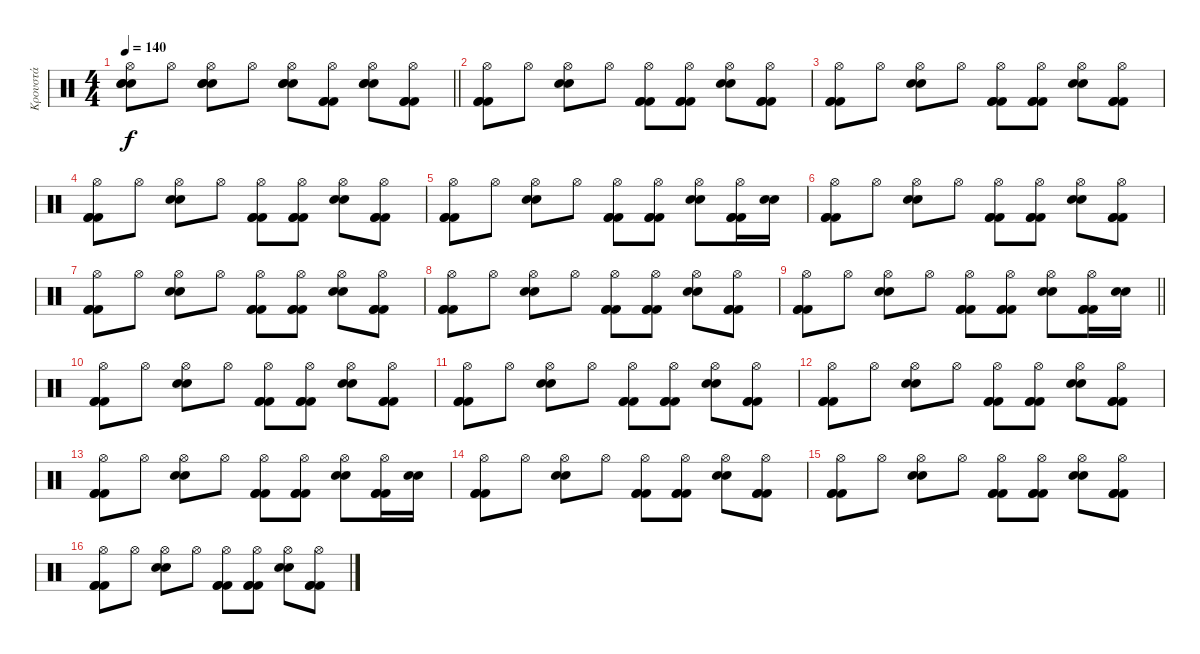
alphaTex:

\track ("Κρουστά" "Κρουστά") {instrument percussion}
\staff {score}
\articulation defaults
\ts (4 4)
\tempo 140
\clef neutral
\barLineRight lightlight
\ks c
("Electric Snare (hit)" "Electric Snare (hit)" "Electric Snare (hit)" "Hi-Hat (open)").8{dy f} "Hi-Hat (open)".8 ("Electric Snare (hit)" "Electric Snare (hit)" "Electric Snare (hit)" "Hi-Hat (open)").8 "Hi-Hat (open)".8 ("Electric Snare (hit)" "Electric Snare (hit)" "Electric Snare (hit)" "Hi-Hat (open)").8 ("Kick (hit) 2" "Kick (hit) 2" "Kick (hit) 2" "Hi-Hat (open)").8 ("Electric Snare (hit)" "Electric Snare (hit)" "Electric Snare (hit)" "Hi-Hat (open)").8 ("Kick (hit) 2" "Kick (hit) 2" "Kick (hit) 2" "Hi-Hat (open)").8 |
("Kick (hit) 2" "Hi-Hat (open)" "Kick (hit) 2" "Kick (hit) 2").8 "Hi-Hat (open)".8 ("Electric Snare (hit)" "Hi-Hat (open)" "Electric Snare (hit)").8 "Hi-Hat (open)".8 ("Kick (hit) 2" "Kick (hit) 2" "Kick (hit) 2" "Hi-Hat (open)").8 ("Kick (hit) 2" "Kick (hit) 2" "Kick (hit) 2" "Hi-Hat (open)").8 ("Electric Snare (hit)" "Electric Snare (hit)" "Hi-Hat (open)").8 ("Kick (hit) 2" "Kick (hit) 2" "Kick (hit) 2" "Hi-Hat (open)").8 |
("Kick (hit) 2" "Hi-Hat (open)" "Kick (hit) 2" "Kick (hit) 2").8 "Hi-Hat (open)".8 ("Electric Snare (hit)" "Hi-Hat (open)" "Electric Snare (hit)").8 "Hi-Hat (open)".8 ("Kick (hit) 2" "Kick (hit) 2" "Kick (hit) 2" "Hi-Hat (open)").8 ("Kick (hit) 2" "Kick (hit) 2" "Kick (hit) 2" "Hi-Hat (open)").8 ("Electric Snare (hit)" "Electric Snare (hit)" "Hi-Hat (open)").8 ("Kick (hit) 2" "Kick (hit) 2" "Kick (hit) 2" "Hi-Hat (open)").8 |
("Kick (hit) 2" "Hi-Hat (open)" "Kick (hit) 2" "Kick (hit) 2").8 "Hi-Hat (open)".8 ("Electric Snare (hit)" "Hi-Hat (open)" "Electric Snare (hit)").8 "Hi-Hat (open)".8 ("Kick (hit) 2" "Kick (hit) 2" "Kick (hit) 2" "Hi-Hat (open)").8 ("Kick (hit) 2" "Kick (hit) 2" "Kick (hit) 2" "Hi-Hat (open)").8 ("Electric Snare (hit)" "Electric Snare (hit)" "Hi-Hat (open)").8 ("Kick (hit) 2" "Kick (hit) 2" "Kick (hit) 2" "Hi-Hat (open)").8 |
("Kick (hit) 2" "Hi-Hat (open)" "Kick (hit) 2" "Kick (hit) 2").8 "Hi-Hat (open)".8 ("Electric Snare (hit)" "Hi-Hat (open)" "Electric Snare (hit)").8 "Hi-Hat (open)".8 ("Kick (hit) 2" "Kick (hit) 2" "Kick (hit) 2" "Hi-Hat (open)").8 ("Kick (hit) 2" "Kick (hit) 2" "Kick (hit) 2" "Hi-Hat (open)").8 ("Electric Snare (hit)" "Electric Snare (hit)" "Hi-Hat (open)").8 ("Kick (hit) 2" "Kick (hit) 2" "Kick (hit) 2" "Hi-Hat (open)").16 ("Electric Snare (hit)" "Electric Snare (hit)").16 |
("Kick (hit) 2" "Hi-Hat (open)" "Kick (hit) 2" "Kick (hit) 2").8 "Hi-Hat (open)".8 ("Electric Snare (hit)" "Hi-Hat (open)" "Electric Snare (hit)").8 "Hi-Hat (open)".8 ("Kick (hit) 2" "Kick (hit) 2" "Kick (hit) 2" "Hi-Hat (open)").8 ("Kick (hit) 2" "Kick (hit) 2" "Kick (hit) 2" "Hi-Hat (open)").8 ("Electric Snare (hit)" "Electric Snare (hit)" "Hi-Hat (open)").8 ("Kick (hit) 2" "Kick (hit) 2" "Kick (hit) 2" "Hi-Hat (open)").8 |
("Kick (hit) 2" "Hi-Hat (open)" "Kick (hit) 2" "Kick (hit) 2").8 "Hi-Hat (open)".8 ("Electric Snare (hit)" "Hi-Hat (open)" "Electric Snare (hit)").8 "Hi-Hat (open)".8 ("Kick (hit) 2" "Kick (hit) 2" "Kick (hit) 2" "Hi-Hat (open)").8 ("Kick (hit) 2" "Kick (hit) 2" "Kick (hit) 2" "Hi-Hat (open)").8 ("Electric Snare (hit)" "Electric Snare (hit)" "Hi-Hat (open)").8 ("Kick (hit) 2" "Kick (hit) 2" "Kick (hit) 2" "Hi-Hat (open)").8 |
("Kick (hit) 2" "Hi-Hat (open)" "Kick (hit) 2" "Kick (hit) 2").8 "Hi-Hat (open)".8 ("Electric Snare (hit)" "Hi-Hat (open)" "Electric Snare (hit)").8 "Hi-Hat (open)".8 ("Kick (hit) 2" "Kick (hit) 2" "Kick (hit) 2" "Hi-Hat (open)").8 ("Kick (hit) 2" "Kick (hit) 2" "Kick (hit) 2" "Hi-Hat (open)").8 ("Electric Snare (hit)" "Electric Snare (hit)" "Hi-Hat (open)").8 ("Kick (hit) 2" "Kick (hit) 2" "Kick (hit) 2" "Hi-Hat (open)").8 |
\barLineRight lightlight
("Kick (hit) 2" "Hi-Hat (open)" "Kick (hit) 2" "Kick (hit) 2").8 "Hi-Hat (open)".8 ("Electric Snare (hit)" "Hi-Hat (open)" "Electric Snare (hit)").8 "Hi-Hat (open)".8 ("Kick (hit) 2" "Kick (hit) 2" "Kick (hit) 2" "Hi-Hat (open)").8 ("Kick (hit) 2" "Kick (hit) 2" "Kick (hit) 2" "Hi-Hat (open)").8 ("Electric Snare (hit)" "Electric Snare (hit)" "Hi-Hat (open)").8 ("Kick (hit) 2" "Kick (hit) 2" "Kick (hit) 2" "Hi-Hat (open)").16 ("Electric Snare (hit)" "Electric Snare (hit)").16 |
("Kick (hit) 2" "Hi-Hat (open)" "Kick (hit) 2" "Kick (hit) 2").8 "Hi-Hat (open)".8 ("Electric Snare (hit)" "Hi-Hat (open)" "Electric Snare (hit)").8 "Hi-Hat (open)".8 ("Kick (hit) 2" "Kick (hit) 2" "Kick (hit) 2" "Hi-Hat (open)").8 ("Kick (hit) 2" "Kick (hit) 2" "Kick (hit) 2" "Hi-Hat (open)").8 ("Electric Snare (hit)" "Electric Snare (hit)" "Hi-Hat (open)").8 ("Kick (hit) 2" "Kick (hit) 2" "Kick (hit) 2" "Hi-Hat (open)").8 |
("Kick (hit) 2" "Hi-Hat (open)" "Kick (hit) 2" "Kick (hit) 2").8 "Hi-Hat (open)".8 ("Electric Snare (hit)" "Hi-Hat (open)" "Electric Snare (hit)").8 "Hi-Hat (open)".8 ("Kick (hit) 2" "Kick (hit) 2" "Kick (hit) 2" "Hi-Hat (open)").8 ("Kick (hit) 2" "Kick (hit) 2" "Kick (hit) 2" "Hi-Hat (open)").8 ("Electric Snare (hit)" "Electric Snare (hit)" "Hi-Hat (open)").8 ("Kick (hit) 2" "Kick (hit) 2" "Kick (hit) 2" "Hi-Hat (open)").8 |
("Kick (hit) 2" "Hi-Hat (open)" "Kick (hit) 2" "Kick (hit) 2").8 "Hi-Hat (open)".8 ("Electric Snare (hit)" "Hi-Hat (open)" "Electric Snare (hit)").8 "Hi-Hat (open)".8 ("Kick (hit) 2" "Kick (hit) 2" "Kick (hit) 2" "Hi-Hat (open)").8 ("Kick (hit) 2" "Kick (hit) 2" "Kick (hit) 2" "Hi-Hat (open)").8 ("Electric Snare (hit)" "Electric Snare (hit)" "Hi-Hat (open)").8 ("Kick (hit) 2" "Kick (hit) 2" "Kick (hit) 2" "Hi-Hat (open)").8 |
("Kick (hit) 2" "Hi-Hat (open)" "Kick (hit) 2" "Kick (hit) 2").8 "Hi-Hat (open)".8 ("Electric Snare (hit)" "Hi-Hat (open)" "Electric Snare (hit)").8 "Hi-Hat (open)".8 ("Kick (hit) 2" "Kick (hit) 2" "Kick (hit) 2" "Hi-Hat (open)").8 ("Kick (hit) 2" "Kick (hit) 2" "Kick (hit) 2" "Hi-Hat (open)").8 ("Electric Snare (hit)" "Electric Snare (hit)" "Hi-Hat (open)").8 ("Kick (hit) 2" "Kick (hit) 2" "Kick (hit) 2" "Hi-Hat (open)").16 ("Electric Snare (hit)" "Electric Snare (hit)").16 |
("Kick (hit) 2" "Hi-Hat (open)" "Kick (hit) 2" "Kick (hit) 2").8 "Hi-Hat (open)".8 ("Electric Snare (hit)" "Hi-Hat (open)" "Electric Snare (hit)").8 "Hi-Hat (open)".8 ("Kick (hit) 2" "Kick (hit) 2" "Kick (hit) 2" "Hi-Hat (open)").8 ("Kick (hit) 2" "Kick (hit) 2" "Kick (hit) 2" "Hi-Hat (open)").8 ("Electric Snare (hit)" "Electric Snare (hit)" "Hi-Hat (open)").8 ("Kick (hit) 2" "Kick (hit) 2" "Kick (hit) 2" "Hi-Hat (open)").8 |
("Kick (hit) 2" "Hi-Hat (open)" "Kick (hit) 2" "Kick (hit) 2").8 "Hi-Hat (open)".8 ("Electric Snare (hit)" "Hi-Hat (open)" "Electric Snare (hit)").8 "Hi-Hat (open)".8 ("Kick (hit) 2" "Kick (hit) 2" "Kick (hit) 2" "Hi-Hat (open)").8 ("Kick (hit) 2" "Kick (hit) 2" "Kick (hit) 2" "Hi-Hat (open)").8 ("Electric Snare (hit)" "Electric Snare (hit)" "Hi-Hat (open)").8 ("Kick (hit) 2" "Kick (hit) 2" "Kick (hit) 2" "Hi-Hat (open)").8 |
("Kick (hit) 2" "Hi-Hat (open)" "Kick (hit) 2" "Kick (hit) 2").8 "Hi-Hat (open)".8 ("Electric Snare (hit)" "Hi-Hat (open)" "Electric Snare (hit)").8 "Hi-Hat (open)".8 ("Kick (hit) 2" "Kick (hit) 2" "Kick (hit) 2" "Hi-Hat (open)").8 ("Kick (hit) 2" "Kick (hit) 2" "Kick (hit) 2" "Hi-Hat (open)").8 ("Electric Snare (hit)" "Electric Snare (hit)" "Hi-Hat (open)").8 ("Kick (hit) 2" "Kick (hit) 2" "Kick (hit) 2" "Hi-Hat (open)").8
